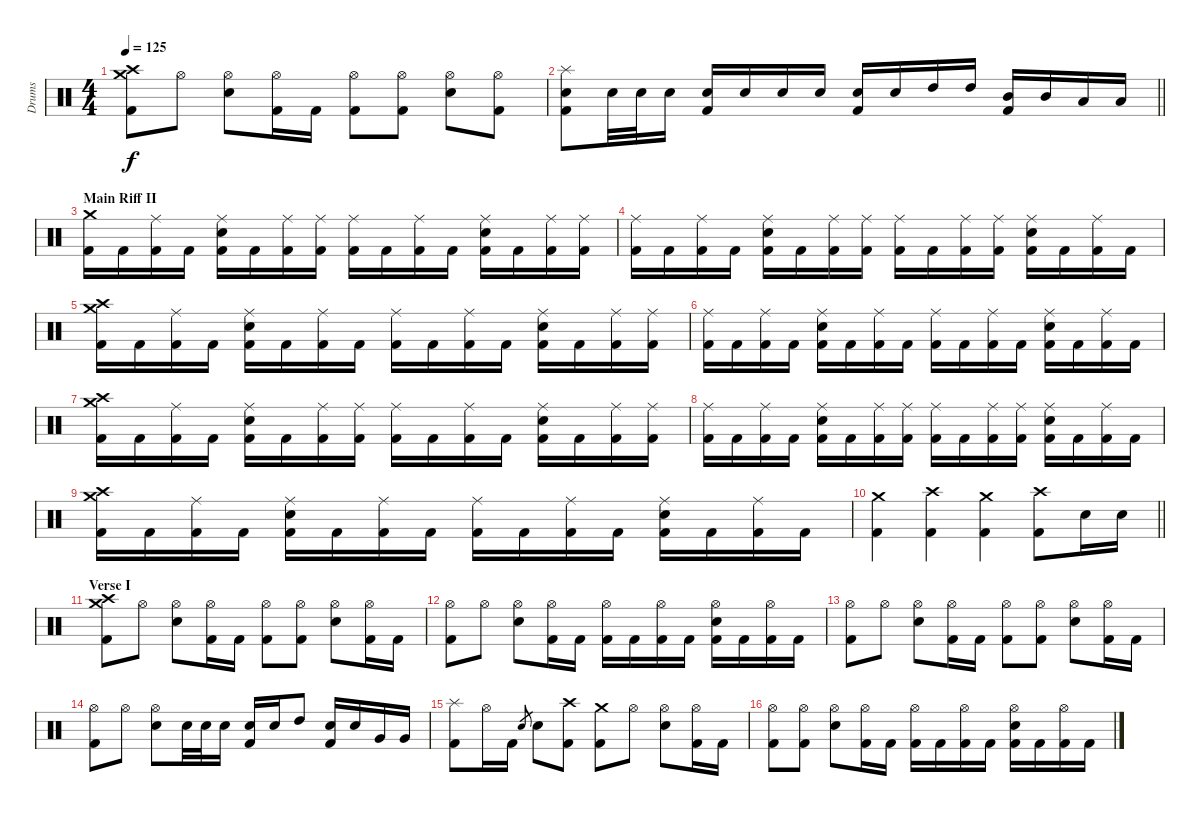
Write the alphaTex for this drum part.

\track ("Drums" "Drums") {instrument percussion}
\staff {score}
\articulation defaults
\ts (4 4)
\tempo 125
\clef neutral
\ks c
("Crash medium (hit)" "Crash high (hit)" "Kick (hit) 2").8{dy f} "Hi-Hat (open)".8 ("Hi-Hat (open)" "Electric Snare (hit)").8 ("Hi-Hat (open)" "Kick (hit) 2").16 "Kick (hit) 2".16 ("Hi-Hat (open)" "Kick (hit) 2").8 ("Hi-Hat (open)" "Kick (hit) 2").8 ("Hi-Hat (open)" "Electric Snare (hit)").8 ("Hi-Hat (open)" "Kick (hit) 2").8 |
\barLineRight lightlight
("Splash (hit)" "Electric Snare (hit)" "Kick (hit) 2").8 "Electric Snare (hit)".32 "Electric Snare (hit)".32 "Electric Snare (hit)".16 ("Electric Snare (hit)" "Kick (hit) 2").16 "Electric Snare (hit)".16 "Electric Snare (hit)".16 "Electric Snare (hit)".16 ("Electric Snare (hit)" "Kick (hit) 2").16 "Electric Snare (hit)".16 "High Tom (hit)".16 "High Tom (hit)".16 ("Mid Tom (hit)" "Kick (hit) 2").16 "Mid Tom (hit)".16 "Low Tom (hit)".16 "Low Tom (hit)".16 |
\section ("" "Main Riff II")
("Crash medium (hit)" "Kick (hit) 2").16 "Kick (hit) 2".16 ("Ride (middle)" "Kick (hit) 2").16 "Kick (hit) 2".16 ("Ride (middle)" "Electric Snare (hit)" "Kick (hit) 2").16 "Kick (hit) 2".16 ("Ride (middle)" "Kick (hit) 2").16 ("Ride (middle)" "Kick (hit) 2").16 ("Ride (middle)" "Kick (hit) 2").16 "Kick (hit) 2".16 ("Ride (middle)" "Kick (hit) 2").16 "Kick (hit) 2".16 ("Ride (middle)" "Electric Snare (hit)" "Kick (hit) 2").16 "Kick (hit) 2".16 ("Ride (middle)" "Kick (hit) 2").16 ("Ride (middle)" "Kick (hit) 2").16 |
("Ride (middle)" "Kick (hit) 2").16 "Kick (hit) 2".16 ("Ride (middle)" "Kick (hit) 2").16 "Kick (hit) 2".16 ("Ride (middle)" "Electric Snare (hit)" "Kick (hit) 2").16 "Kick (hit) 2".16 ("Ride (middle)" "Kick (hit) 2").16 ("Ride (middle)" "Kick (hit) 2").16 ("Ride (middle)" "Kick (hit) 2").16 "Kick (hit) 2".16 ("Ride (middle)" "Kick (hit) 2").16 ("Ride (middle)" "Kick (hit) 2").16 ("Ride (middle)" "Electric Snare (hit)" "Kick (hit) 2").16 "Kick (hit) 2".16 ("Ride (middle)" "Kick (hit) 2").16 "Kick (hit) 2".16 |
("Crash medium (hit)" "Crash high (hit)" "Kick (hit) 2").16 "Kick (hit) 2".16 ("Ride (middle)" "Kick (hit) 2").16 "Kick (hit) 2".16 ("Ride (middle)" "Electric Snare (hit)" "Kick (hit) 2").16 "Kick (hit) 2".16 ("Ride (middle)" "Kick (hit) 2").16 "Kick (hit) 2".16 ("Ride (middle)" "Kick (hit) 2").16 "Kick (hit) 2".16 ("Ride (middle)" "Kick (hit) 2").16 "Kick (hit) 2".16 ("Ride (middle)" "Electric Snare (hit)" "Kick (hit) 2").16 "Kick (hit) 2".16 ("Ride (middle)" "Kick (hit) 2").16 ("Ride (middle)" "Kick (hit) 2").16 |
("Ride (middle)" "Kick (hit) 2").16 "Kick (hit) 2".16 ("Ride (middle)" "Kick (hit) 2").16 "Kick (hit) 2".16 ("Ride (middle)" "Electric Snare (hit)" "Kick (hit) 2").16 "Kick (hit) 2".16 ("Ride (middle)" "Kick (hit) 2").16 "Kick (hit) 2".16 ("Ride (middle)" "Kick (hit) 2").16 "Kick (hit) 2".16 ("Ride (middle)" "Kick (hit) 2").16 "Kick (hit) 2".16 ("Ride (middle)" "Electric Snare (hit)" "Kick (hit) 2").16 "Kick (hit) 2".16 ("Ride (middle)" "Kick (hit) 2").16 "Kick (hit) 2".16 |
("Crash medium (hit)" "Crash high (hit)" "Kick (hit) 2").16 "Kick (hit) 2".16 ("Ride (middle)" "Kick (hit) 2").16 "Kick (hit) 2".16 ("Ride (middle)" "Electric Snare (hit)" "Kick (hit) 2").16 "Kick (hit) 2".16 ("Ride (middle)" "Kick (hit) 2").16 ("Ride (middle)" "Kick (hit) 2").16 ("Ride (middle)" "Kick (hit) 2").16 "Kick (hit) 2".16 ("Ride (middle)" "Kick (hit) 2").16 "Kick (hit) 2".16 ("Ride (middle)" "Electric Snare (hit)" "Kick (hit) 2").16 "Kick (hit) 2".16 ("Ride (middle)" "Kick (hit) 2").16 ("Ride (middle)" "Kick (hit) 2").16 |
("Ride (middle)" "Kick (hit) 2").16 "Kick (hit) 2".16 ("Ride (middle)" "Kick (hit) 2").16 "Kick (hit) 2".16 ("Ride (middle)" "Electric Snare (hit)" "Kick (hit) 2").16 "Kick (hit) 2".16 ("Ride (middle)" "Kick (hit) 2").16 ("Ride (middle)" "Kick (hit) 2").16 ("Ride (middle)" "Kick (hit) 2").16 "Kick (hit) 2".16 ("Ride (middle)" "Kick (hit) 2").16 ("Ride (middle)" "Kick (hit) 2").16 ("Ride (middle)" "Electric Snare (hit)" "Kick (hit) 2").16 "Kick (hit) 2".16 ("Ride (middle)" "Kick (hit) 2").16 "Kick (hit) 2".16 |
("Crash medium (hit)" "Crash high (hit)" "Kick (hit) 2").16 "Kick (hit) 2".16 ("Ride (middle)" "Kick (hit) 2").16 "Kick (hit) 2".16 ("Ride (middle)" "Electric Snare (hit)" "Kick (hit) 2").16 "Kick (hit) 2".16 ("Ride (middle)" "Kick (hit) 2").16 "Kick (hit) 2".16 ("Ride (middle)" "Kick (hit) 2").16 "Kick (hit) 2".16 ("Ride (middle)" "Kick (hit) 2").16 "Kick (hit) 2".16 ("Ride (middle)" "Electric Snare (hit)" "Kick (hit) 2").16 "Kick (hit) 2".16 ("Ride (middle)" "Kick (hit) 2").16 "Kick (hit) 2".16 |
\barLineRight lightlight
("Crash medium (hit)" "Kick (hit) 2").4 ("Crash high (hit)" "Kick (hit) 2").4 ("Crash medium (hit)" "Kick (hit) 2").4 ("Crash high (hit)" "Kick (hit) 2").8 "Electric Snare (hit)".16 "Electric Snare (hit)".16 |
\section ("" "Verse I")
("Crash medium (hit)" "Crash high (hit)" "Kick (hit) 2").8 "Hi-Hat (open)".8 ("Hi-Hat (open)" "Electric Snare (hit)").8 ("Hi-Hat (open)" "Kick (hit) 2").16 "Kick (hit) 2".16 ("Hi-Hat (open)" "Kick (hit) 2").8 ("Hi-Hat (open)" "Kick (hit) 2").8 ("Hi-Hat (open)" "Electric Snare (hit)").8 ("Hi-Hat (open)" "Kick (hit) 2").16 "Kick (hit) 2".16 |
("Hi-Hat (open)" "Kick (hit) 2").8 "Hi-Hat (open)".8 ("Hi-Hat (open)" "Electric Snare (hit)").8 ("Hi-Hat (open)" "Kick (hit) 2").16 "Kick (hit) 2".16 ("Hi-Hat (open)" "Kick (hit) 2").16 "Kick (hit) 2".16 ("Hi-Hat (open)" "Kick (hit) 2").16 "Kick (hit) 2".16 ("Hi-Hat (open)" "Electric Snare (hit)" "Kick (hit) 2").16 "Kick (hit) 2".16 ("Hi-Hat (open)" "Kick (hit) 2").16 "Kick (hit) 2".16 |
("Hi-Hat (open)" "Kick (hit) 2").8 "Hi-Hat (open)".8 ("Hi-Hat (open)" "Electric Snare (hit)").8 ("Hi-Hat (open)" "Kick (hit) 2").16 "Kick (hit) 2".16 ("Hi-Hat (open)" "Kick (hit) 2").8 ("Hi-Hat (open)" "Kick (hit) 2").8 ("Hi-Hat (open)" "Electric Snare (hit)").8 ("Hi-Hat (open)" "Kick (hit) 2").16 "Kick (hit) 2".16 |
("Hi-Hat (open)" "Kick (hit) 2").8 "Hi-Hat (open)".8 ("Hi-Hat (open)" "Electric Snare (hit)").8 "Electric Snare (hit)".32 "Electric Snare (hit)".32 "Electric Snare (hit)".16 ("Electric Snare (hit)" "Kick (hit) 2").16 "Electric Snare (hit)".16 "High Tom (hit)".8 ("Electric Snare (hit)" "Kick (hit) 2").16 "Electric Snare (hit)".16 "Very Low Tom (hit)".16 "Very Low Tom (hit)".16 |
("Splash (hit)" "Kick (hit) 2").8 "Hi-Hat (open)".16 "Kick (hit) 2".16 "Electric Snare (hit)".8{gr} "Electric Snare (hit)".8 ("Crash high (hit)" "Kick (hit) 2").8 ("Crash medium (hit)" "Kick (hit) 2").8 "Hi-Hat (open)".8 ("Hi-Hat (open)" "Electric Snare (hit)").8 ("Hi-Hat (open)" "Kick (hit) 2").16 "Kick (hit) 2".16 |
("Hi-Hat (open)" "Kick (hit) 2").8 ("Hi-Hat (open)" "Kick (hit) 2").8 ("Hi-Hat (open)" "Electric Snare (hit)").8 ("Hi-Hat (open)" "Kick (hit) 2").16 "Kick (hit) 2".16 ("Hi-Hat (open)" "Kick (hit) 2").16 "Kick (hit) 2".16 ("Hi-Hat (open)" "Kick (hit) 2").16 "Kick (hit) 2".16 ("Hi-Hat (open)" "Electric Snare (hit)" "Kick (hit) 2").16 "Kick (hit) 2".16 ("Hi-Hat (open)" "Kick (hit) 2").16 "Kick (hit) 2".16
